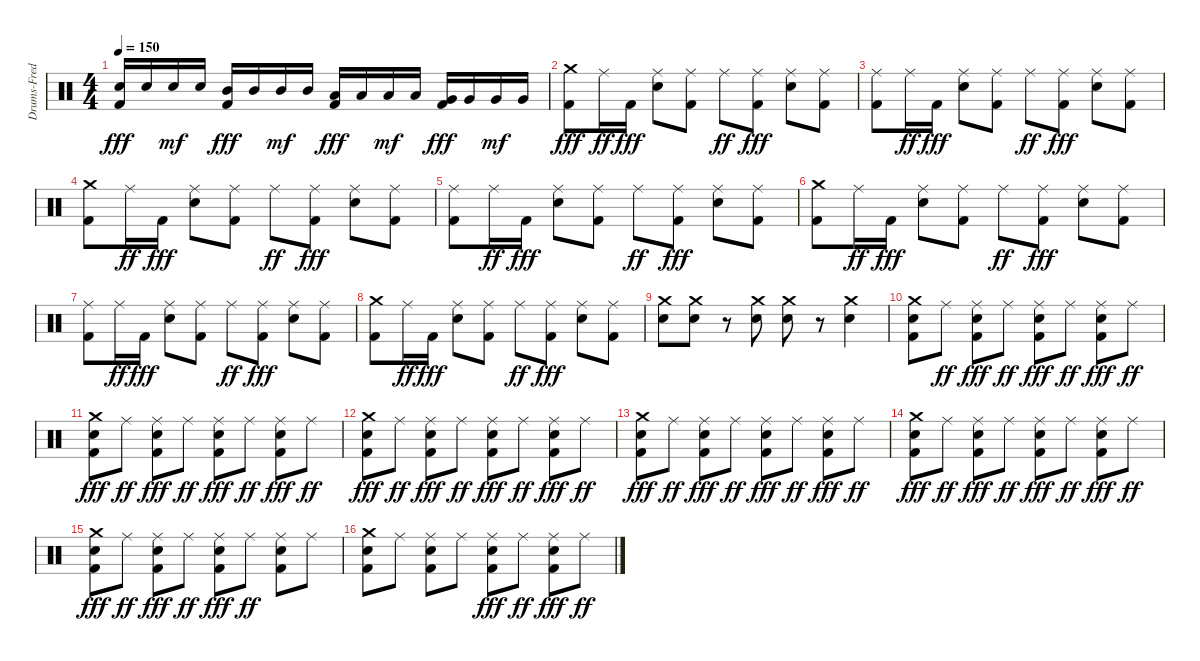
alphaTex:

\track ("Drums-Fred" "Drums-Fred") {instrument percussion}
\staff {score}
\articulation defaults
\ts (4 4)
\tempo 150
\clef neutral
\ks c
("Snare (hit) 2" "Kick (hit) 2").16{dy fff} "Snare (hit) 2".16 "Snare (hit) 2".16{dy mf} "Snare (hit) 2".16 ("Mid Tom (hit)" "Kick (hit) 2").16{dy fff} "Mid Tom (hit)".16 "Mid Tom (hit)".16{dy mf} "Mid Tom (hit)".16 ("Low Tom (hit)" "Kick (hit) 2").16{dy fff} "Low Tom (hit)".16 "Low Tom (hit)".16{dy mf} "Low Tom (hit)".16 ("Very Low Tom (hit)" "Kick (hit) 2").16{dy fff} "Very Low Tom (hit)".16 "Very Low Tom (hit)".16{dy mf} "Very Low Tom (hit)".16 |
("Crash medium (hit)" "Kick (hit) 2").8{dy fff} "Ride (middle)".16{dy ff} "Kick (hit) 2".16{dy fff} ("Ride (middle)" "Snare (hit) 2").8 ("Ride (middle)" "Kick (hit) 2").8 "Ride (middle)".8{dy ff} ("Ride (middle)" "Kick (hit) 2").8{dy fff} ("Ride (middle)" "Snare (hit) 2").8 ("Ride (middle)" "Kick (hit) 2").8 |
("Ride (middle)" "Kick (hit) 2").8 "Ride (middle)".16{dy ff} "Kick (hit) 2".16{dy fff} ("Ride (middle)" "Snare (hit) 2").8 ("Ride (middle)" "Kick (hit) 2").8 "Ride (middle)".8{dy ff} ("Ride (middle)" "Kick (hit) 2").8{dy fff} ("Ride (middle)" "Snare (hit) 2").8 ("Ride (middle)" "Kick (hit) 2").8 |
("Crash medium (hit)" "Kick (hit) 2").8 "Ride (middle)".16{dy ff} "Kick (hit) 2".16{dy fff} ("Ride (middle)" "Snare (hit) 2").8 ("Ride (middle)" "Kick (hit) 2").8 "Ride (middle)".8{dy ff} ("Ride (middle)" "Kick (hit) 2").8{dy fff} ("Ride (middle)" "Snare (hit) 2").8 ("Ride (middle)" "Kick (hit) 2").8 |
("Ride (middle)" "Kick (hit) 2").8 "Ride (middle)".16{dy ff} "Kick (hit) 2".16{dy fff} ("Ride (middle)" "Snare (hit) 2").8 ("Ride (middle)" "Kick (hit) 2").8 "Ride (middle)".8{dy ff} ("Ride (middle)" "Kick (hit) 2").8{dy fff} ("Ride (middle)" "Snare (hit) 2").8 ("Ride (middle)" "Kick (hit) 2").8 |
("Crash medium (hit)" "Kick (hit) 2").8 "Ride (middle)".16{dy ff} "Kick (hit) 2".16{dy fff} ("Ride (middle)" "Snare (hit) 2").8 ("Ride (middle)" "Kick (hit) 2").8 "Ride (middle)".8{dy ff} ("Ride (middle)" "Kick (hit) 2").8{dy fff} ("Ride (middle)" "Snare (hit) 2").8 ("Ride (middle)" "Kick (hit) 2").8 |
("Ride (middle)" "Kick (hit) 2").8 "Ride (middle)".16{dy ff} "Kick (hit) 2".16{dy fff} ("Ride (middle)" "Snare (hit) 2").8 ("Ride (middle)" "Kick (hit) 2").8 "Ride (middle)".8{dy ff} ("Ride (middle)" "Kick (hit) 2").8{dy fff} ("Ride (middle)" "Snare (hit) 2").8 ("Ride (middle)" "Kick (hit) 2").8 |
("Crash medium (hit)" "Kick (hit) 2").8 "Ride (middle)".16{dy ff} "Kick (hit) 2".16{dy fff} ("Ride (middle)" "Snare (hit) 2").8 ("Ride (middle)" "Kick (hit) 2").8 "Ride (middle)".8{dy ff} ("Ride (middle)" "Kick (hit) 2").8{dy fff} ("Ride (middle)" "Snare (hit) 2").8 ("Ride (middle)" "Kick (hit) 2").8 |
("Crash medium (hit)" "Snare (hit) 2").8 ("Crash medium (hit)" "Snare (hit) 2").8 r.8 ("Crash medium (hit)" "Snare (hit) 2").8 ("Crash medium (hit)" "Snare (hit) 2").8 r.8 ("Crash medium (hit)" "Snare (hit) 2").4 |
("Crash medium (hit)" "Snare (hit) 2" "Kick (hit) 2").8 "Ride (middle)".8{dy ff} ("Ride (middle)" "Snare (hit) 2" "Kick (hit) 2").8{dy fff} "Ride (middle)".8{dy ff} ("Ride (middle)" "Snare (hit) 2" "Kick (hit) 2").8{dy fff} "Ride (middle)".8{dy ff} ("Ride (middle)" "Snare (hit) 2" "Kick (hit) 2").8{dy fff} "Ride (middle)".8{dy ff} |
("Crash medium (hit)" "Snare (hit) 2" "Kick (hit) 2").8{dy fff} "Ride (middle)".8{dy ff} ("Ride (middle)" "Snare (hit) 2" "Kick (hit) 2").8{dy fff} "Ride (middle)".8{dy ff} ("Ride (middle)" "Snare (hit) 2" "Kick (hit) 2").8{dy fff} "Ride (middle)".8{dy ff} ("Ride (middle)" "Snare (hit) 2" "Kick (hit) 2").8{dy fff} "Ride (middle)".8{dy ff} |
("Crash medium (hit)" "Snare (hit) 2" "Kick (hit) 2").8{dy fff} "Ride (middle)".8{dy ff} ("Ride (middle)" "Snare (hit) 2" "Kick (hit) 2").8{dy fff} "Ride (middle)".8{dy ff} ("Ride (middle)" "Snare (hit) 2" "Kick (hit) 2").8{dy fff} "Ride (middle)".8{dy ff} ("Ride (middle)" "Snare (hit) 2" "Kick (hit) 2").8{dy fff} "Ride (middle)".8{dy ff} |
("Crash medium (hit)" "Snare (hit) 2" "Kick (hit) 2").8{dy fff} "Ride (middle)".8{dy ff} ("Ride (middle)" "Snare (hit) 2" "Kick (hit) 2").8{dy fff} "Ride (middle)".8{dy ff} ("Ride (middle)" "Snare (hit) 2" "Kick (hit) 2").8{dy fff} "Ride (middle)".8{dy ff} ("Ride (middle)" "Snare (hit) 2" "Kick (hit) 2").8{dy fff} "Ride (middle)".8{dy ff} |
("Crash medium (hit)" "Snare (hit) 2" "Kick (hit) 2").8{dy fff} "Ride (middle)".8{dy ff} ("Ride (middle)" "Snare (hit) 2" "Kick (hit) 2").8{dy fff} "Ride (middle)".8{dy ff} ("Ride (middle)" "Snare (hit) 2" "Kick (hit) 2").8{dy fff} "Ride (middle)".8{dy ff} ("Ride (middle)" "Snare (hit) 2" "Kick (hit) 2").8{dy fff} "Ride (middle)".8{dy ff} |
("Crash medium (hit)" "Snare (hit) 2" "Kick (hit) 2").8{dy fff} "Ride (middle)".8{dy ff} ("Ride (middle)" "Snare (hit) 2" "Kick (hit) 2").8{dy fff} "Ride (middle)".8{dy ff} ("Ride (middle)" "Snare (hit) 2" "Kick (hit) 2").8{dy fff} "Ride (middle)".8{dy ff} ("Ride (middle)" "Snare (hit) 2" "Kick (hit) 2").8 "Ride (middle)".8 |
("Crash medium (hit)" "Snare (hit) 2" "Kick (hit) 2").8 "Ride (middle)".8 ("Ride (middle)" "Snare (hit) 2" "Kick (hit) 2").8 "Ride (middle)".8 ("Ride (middle)" "Snare (hit) 2" "Kick (hit) 2").8{dy fff} "Ride (middle)".8{dy ff} ("Ride (middle)" "Snare (hit) 2" "Kick (hit) 2").8{dy fff} "Ride (middle)".8{dy ff}
